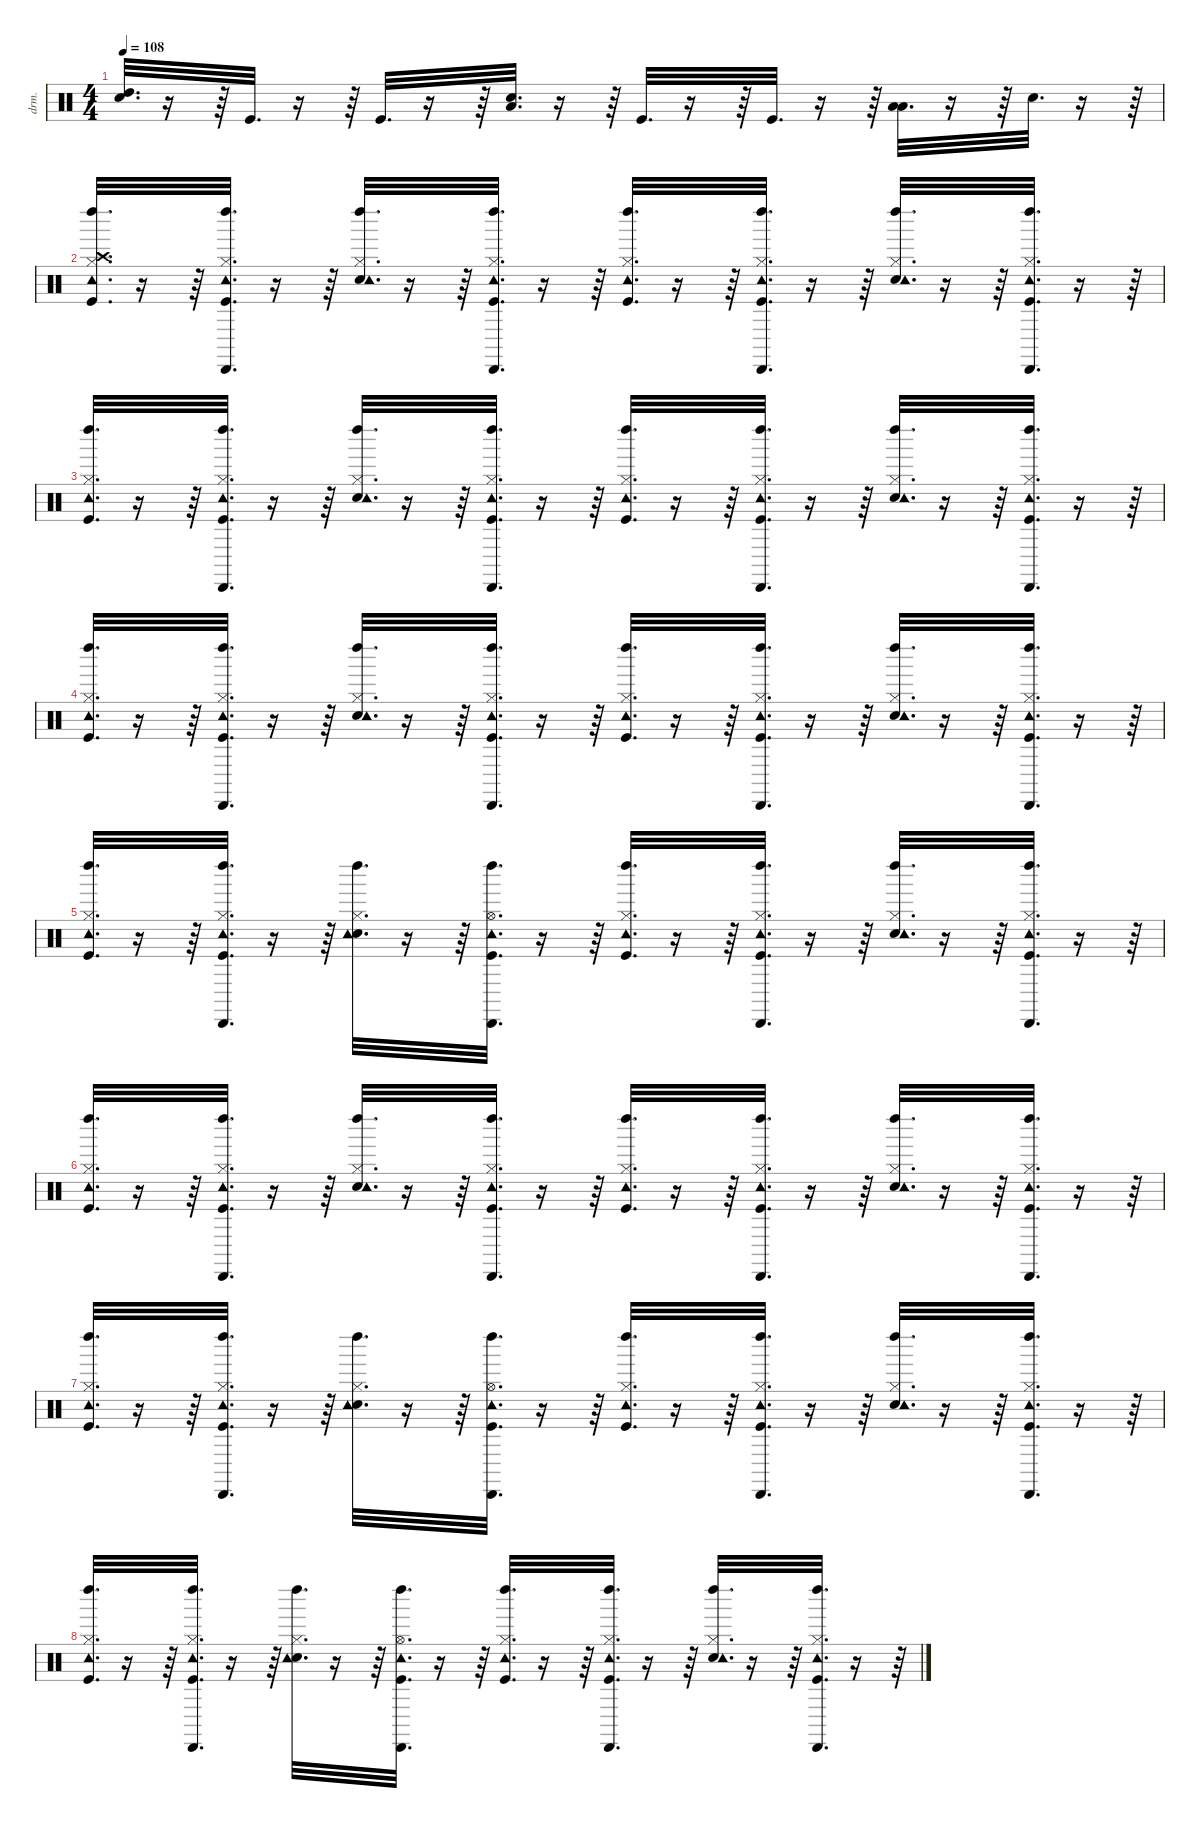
\defaultSystemsLayout 4
\hideDynamics
\bracketExtendMode nobrackets
\otherSystemsTrackNameOrientation horizontal
\track ("Percussions" "drm.") {instrument percussion}
\staff {score}
\articulation defaults
\ts (4 4)
\tempo 108
\clef neutral
\ks c
("High Tom (hit)" "Snare (hit) 2").32{d dy f} r.16 r.64 "Kick (hit)".32{d} r.16 r.64 "Kick (hit)".32{d} r.16 r.64 ("Low Tom (hit)" "Snare (hit) 2").32{d} r.16 r.64 "Kick (hit)".32{d} r.16 r.64 "Kick (hit)".32{d} r.16 r.64 ("Low Tom (hit)" "Low Floor Tom (hit)").32{d} r.16 r.64 "Snare (hit) 2".32{d} r.16 r.64 |
("Left Maraca (hit)" "Crash high (hit)" "Kick (hit)" "Hi-Hat (closed)" "Tambourine (hit)").32{d} r.16 r.64 ("Cabasa (hit)" "Tambourine (hit)" "Kick (hit)" "Hi-Hat (closed)" "Left Maraca (hit)").32{d} r.16 r.64 ("Left Maraca (hit)" "Snare (hit) 2" "Hi-Hat (closed)" "Tambourine (hit)").32{d} r.16 r.64 ("Cabasa (hit)" "Tambourine (hit)" "Kick (hit)" "Hi-Hat (closed)" "Left Maraca (hit)").32{d} r.16 r.64 ("Left Maraca (hit)" "Kick (hit)" "Hi-Hat (closed)" "Tambourine (hit)").32{d} r.16 r.64 ("Cabasa (hit)" "Tambourine (hit)" "Kick (hit)" "Hi-Hat (closed)" "Left Maraca (hit)").32{d} r.16 r.64 ("Left Maraca (hit)" "Snare (hit) 2" "Hi-Hat (closed)" "Tambourine (hit)").32{d} r.16 r.64 ("Cabasa (hit)" "Tambourine (hit)" "Kick (hit)" "Hi-Hat (closed)" "Left Maraca (hit)").32{d} r.16 r.64 |
("Left Maraca (hit)" "Kick (hit)" "Hi-Hat (closed)" "Tambourine (hit)").32{d} r.16 r.64 ("Cabasa (hit)" "Tambourine (hit)" "Kick (hit)" "Hi-Hat (closed)" "Left Maraca (hit)").32{d} r.16 r.64 ("Left Maraca (hit)" "Snare (hit) 2" "Hi-Hat (closed)" "Tambourine (hit)").32{d} r.16 r.64 ("Cabasa (hit)" "Tambourine (hit)" "Kick (hit)" "Hi-Hat (closed)" "Left Maraca (hit)").32{d} r.16 r.64 ("Left Maraca (hit)" "Kick (hit)" "Hi-Hat (closed)" "Tambourine (hit)").32{d} r.16 r.64 ("Cabasa (hit)" "Tambourine (hit)" "Kick (hit)" "Hi-Hat (closed)" "Left Maraca (hit)").32{d} r.16 r.64 ("Left Maraca (hit)" "Snare (hit) 2" "Hi-Hat (closed)" "Tambourine (hit)").32{d} r.16 r.64 ("Cabasa (hit)" "Tambourine (hit)" "Kick (hit)" "Hi-Hat (closed)" "Left Maraca (hit)").32{d} r.16 r.64 |
("Left Maraca (hit)" "Kick (hit)" "Hi-Hat (closed)" "Tambourine (hit)").32{d} r.16 r.64 ("Cabasa (hit)" "Tambourine (hit)" "Kick (hit)" "Hi-Hat (closed)" "Left Maraca (hit)").32{d} r.16 r.64 ("Left Maraca (hit)" "Snare (hit) 2" "Hi-Hat (closed)" "Tambourine (hit)").32{d} r.16 r.64 ("Cabasa (hit)" "Tambourine (hit)" "Kick (hit)" "Hi-Hat (closed)" "Left Maraca (hit)").32{d} r.16 r.64 ("Left Maraca (hit)" "Kick (hit)" "Hi-Hat (closed)" "Tambourine (hit)").32{d} r.16 r.64 ("Cabasa (hit)" "Tambourine (hit)" "Kick (hit)" "Hi-Hat (closed)" "Left Maraca (hit)").32{d} r.16 r.64 ("Left Maraca (hit)" "Snare (hit) 2" "Hi-Hat (closed)" "Tambourine (hit)").32{d} r.16 r.64 ("Cabasa (hit)" "Tambourine (hit)" "Kick (hit)" "Hi-Hat (closed)" "Left Maraca (hit)").32{d} r.16 r.64 |
("Left Maraca (hit)" "Kick (hit)" "Hi-Hat (closed)" "Tambourine (hit)").32{d} r.16 r.64 ("Cabasa (hit)" "Tambourine (hit)" "Kick (hit)" "Hi-Hat (closed)" "Left Maraca (hit)").32{d} r.16 r.64 ("Left Maraca (hit)" "Snare (hit) 2" "Hi-Hat (closed)" "Tambourine (hit)").32{d} r.16 r.64 ("Cabasa (hit)" "Tambourine (hit)" "Kick (hit)" "Hi-Hat (open)" "Left Maraca (hit)").32{d} r.16 r.64 ("Left Maraca (hit)" "Kick (hit)" "Hi-Hat (closed)" "Tambourine (hit)").32{d} r.16 r.64 ("Cabasa (hit)" "Tambourine (hit)" "Kick (hit)" "Hi-Hat (closed)" "Left Maraca (hit)").32{d} r.16 r.64 ("Left Maraca (hit)" "Snare (hit) 2" "Hi-Hat (closed)" "Tambourine (hit)").32{d} r.16 r.64 ("Cabasa (hit)" "Tambourine (hit)" "Kick (hit)" "Hi-Hat (closed)" "Left Maraca (hit)").32{d} r.16 r.64 |
("Left Maraca (hit)" "Kick (hit)" "Hi-Hat (closed)" "Tambourine (hit)").32{d} r.16 r.64 ("Cabasa (hit)" "Tambourine (hit)" "Kick (hit)" "Hi-Hat (closed)" "Left Maraca (hit)").32{d} r.16 r.64 ("Left Maraca (hit)" "Snare (hit) 2" "Hi-Hat (closed)" "Tambourine (hit)").32{d} r.16 r.64 ("Cabasa (hit)" "Tambourine (hit)" "Kick (hit)" "Hi-Hat (closed)" "Left Maraca (hit)").32{d} r.16 r.64 ("Left Maraca (hit)" "Kick (hit)" "Hi-Hat (closed)" "Tambourine (hit)").32{d} r.16 r.64 ("Cabasa (hit)" "Tambourine (hit)" "Kick (hit)" "Hi-Hat (closed)" "Left Maraca (hit)").32{d} r.16 r.64 ("Left Maraca (hit)" "Snare (hit) 2" "Hi-Hat (closed)" "Tambourine (hit)").32{d} r.16 r.64 ("Cabasa (hit)" "Tambourine (hit)" "Kick (hit)" "Hi-Hat (closed)" "Left Maraca (hit)").32{d} r.16 r.64 |
("Left Maraca (hit)" "Kick (hit)" "Hi-Hat (closed)" "Tambourine (hit)").32{d} r.16 r.64 ("Cabasa (hit)" "Tambourine (hit)" "Kick (hit)" "Hi-Hat (closed)" "Left Maraca (hit)").32{d} r.16 r.64 ("Left Maraca (hit)" "Snare (hit) 2" "Hi-Hat (closed)" "Tambourine (hit)").32{d} r.16 r.64 ("Cabasa (hit)" "Tambourine (hit)" "Kick (hit)" "Hi-Hat (open)" "Left Maraca (hit)").32{d} r.16 r.64 ("Left Maraca (hit)" "Kick (hit)" "Hi-Hat (closed)" "Tambourine (hit)").32{d} r.16 r.64 ("Cabasa (hit)" "Tambourine (hit)" "Kick (hit)" "Hi-Hat (closed)" "Left Maraca (hit)").32{d} r.16 r.64 ("Left Maraca (hit)" "Snare (hit) 2" "Hi-Hat (closed)" "Tambourine (hit)").32{d} r.16 r.64 ("Cabasa (hit)" "Tambourine (hit)" "Kick (hit)" "Hi-Hat (closed)" "Left Maraca (hit)").32{d} r.16 r.64 |
("Left Maraca (hit)" "Kick (hit)" "Hi-Hat (closed)" "Tambourine (hit)").32{d} r.16 r.64 ("Cabasa (hit)" "Tambourine (hit)" "Kick (hit)" "Hi-Hat (closed)" "Left Maraca (hit)").32{d} r.16 r.64 ("Left Maraca (hit)" "Snare (hit) 2" "Hi-Hat (closed)" "Tambourine (hit)").32{d} r.16 r.64 ("Cabasa (hit)" "Tambourine (hit)" "Kick (hit)" "Hi-Hat (open)" "Left Maraca (hit)").32{d} r.16 r.64 ("Left Maraca (hit)" "Kick (hit)" "Hi-Hat (closed)" "Tambourine (hit)").32{d} r.16 r.64 ("Cabasa (hit)" "Tambourine (hit)" "Kick (hit)" "Hi-Hat (closed)" "Left Maraca (hit)").32{d} r.16 r.64 ("Left Maraca (hit)" "Snare (hit) 2" "Hi-Hat (closed)" "Tambourine (hit)").32{d} r.16 r.64 ("Cabasa (hit)" "Tambourine (hit)" "Kick (hit)" "Hi-Hat (closed)" "Left Maraca (hit)").32{d} r.16 r.64
